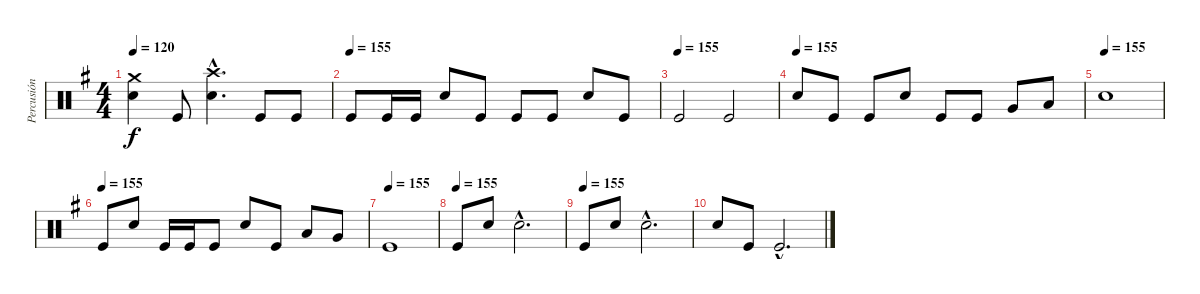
\track ("Percusión" "Percusión") {instrument percussion}
\staff {score}
\articulation defaults
\ts (4 4)
\tempo 120
\clef neutral
\ks g
("Crash medium (hit)" "Snare (hit) 2").4{dy f} "Kick (hit)".8 ("Crash high (hit)"{hac} "Snare (hit) 2"{hac}).4{d} "Kick (hit)".8 "Kick (hit)".8 |
\tempo (155)
"Kick (hit)".8 "Kick (hit)".16 "Kick (hit)".16 "Snare (hit) 2".8 "Kick (hit)".8 "Kick (hit)".8 "Kick (hit)".8 "Snare (hit) 2".8 "Kick (hit)".8 |
\tempo (155)
"Kick (hit)".2 "Kick (hit)".2 |
\tempo (155)
"Snare (hit) 2".8 "Kick (hit)".8 "Kick (hit)".8 "Snare (hit) 2".8 "Kick (hit)".8 "Kick (hit)".8 "Very Low Tom (hit)".8 "Low Tom (hit)".8 |
\tempo (155)
"Snare (hit) 2".1 |
\tempo (155)
"Kick (hit)".8 "Snare (hit) 2".8 "Kick (hit)".16 "Kick (hit)".16 "Kick (hit)".8 "Snare (hit) 2".8 "Kick (hit)".8 "Low Tom (hit)".8 "Very Low Tom (hit)".8 |
\tempo (155)
"Kick (hit)".1 |
\tempo (155)
"Kick (hit)".8 "Snare (hit) 2".8 "Snare (hit) 2"{hac}.2{d} |
\tempo (155)
"Kick (hit)".8 "Snare (hit) 2".8 "Snare (hit) 2"{hac}.2{d} |
"Snare (hit) 2".8 "Kick (hit)".8 "Kick (hit)"{hac}.2{d}
